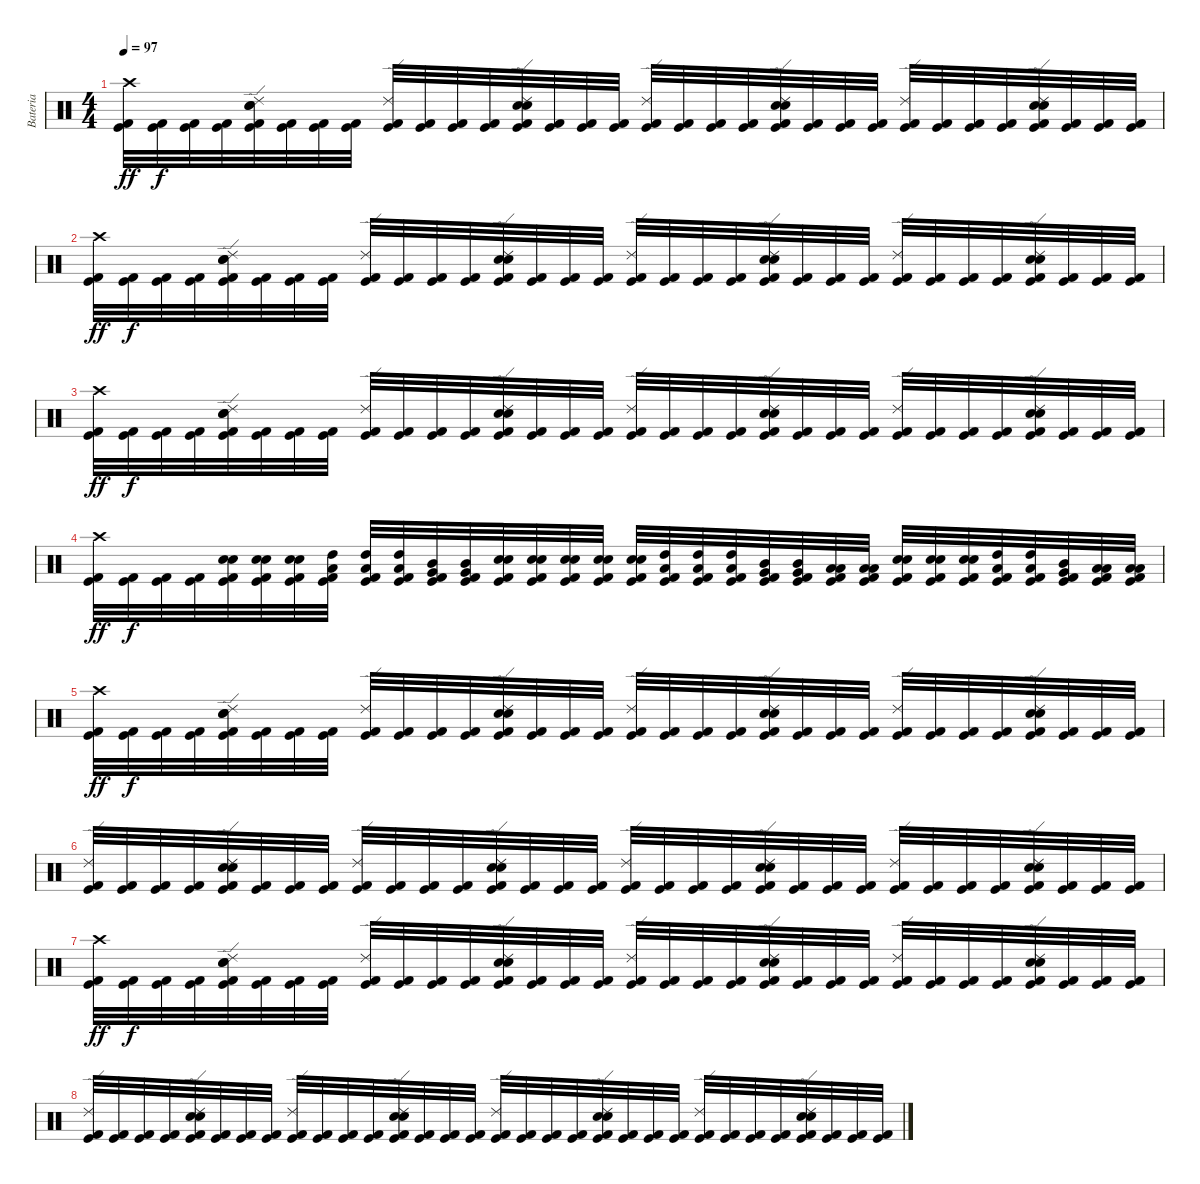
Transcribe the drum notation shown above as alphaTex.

\track ("Bateria" "Bateria") {instrument percussion}
\staff {score}
\articulation defaults
\ts (4 4)
\tempo 97
\clef neutral
\ks c
("Crash high (hit)" "Kick (hit) 2" "Kick (hit)").32{dy ff} ("Kick (hit) 2" "Kick (hit)").32{dy f} ("Kick (hit) 2" "Kick (hit)").32 ("Kick (hit) 2" "Kick (hit)").32 ("Ride (edge) 2" "Electric Snare (hit)" "Snare (hit) 2" "Kick (hit) 2" "Kick (hit)").32 ("Kick (hit) 2" "Kick (hit)").32 ("Kick (hit) 2" "Kick (hit)").32 ("Kick (hit) 2" "Kick (hit)").32 ("Ride (edge) 2" "Kick (hit) 2" "Kick (hit)").32 ("Kick (hit) 2" "Kick (hit)").32 ("Kick (hit) 2" "Kick (hit)").32 ("Kick (hit) 2" "Kick (hit)").32 ("Ride (edge) 2" "Electric Snare (hit)" "Snare (hit) 2" "Kick (hit) 2" "Kick (hit)").32 ("Kick (hit) 2" "Kick (hit)").32 ("Kick (hit) 2" "Kick (hit)").32 ("Kick (hit) 2" "Kick (hit)").32 ("Ride (edge) 2" "Kick (hit) 2" "Kick (hit)").32 ("Kick (hit) 2" "Kick (hit)").32 ("Kick (hit) 2" "Kick (hit)").32 ("Kick (hit) 2" "Kick (hit)").32 ("Ride (edge) 2" "Electric Snare (hit)" "Snare (hit) 2" "Kick (hit) 2" "Kick (hit)").32 ("Kick (hit) 2" "Kick (hit)").32 ("Kick (hit) 2" "Kick (hit)").32 ("Kick (hit) 2" "Kick (hit)").32 ("Ride (edge) 2" "Kick (hit) 2" "Kick (hit)").32 ("Kick (hit) 2" "Kick (hit)").32 ("Kick (hit) 2" "Kick (hit)").32 ("Kick (hit) 2" "Kick (hit)").32 ("Ride (edge) 2" "Electric Snare (hit)" "Snare (hit) 2" "Kick (hit) 2" "Kick (hit)").32 ("Kick (hit) 2" "Kick (hit)").32 ("Kick (hit) 2" "Kick (hit)").32 ("Kick (hit) 2" "Kick (hit)").32 |
("Crash high (hit)" "Kick (hit) 2" "Kick (hit)").32{dy ff} ("Kick (hit) 2" "Kick (hit)").32{dy f} ("Kick (hit) 2" "Kick (hit)").32 ("Kick (hit) 2" "Kick (hit)").32 ("Ride (edge) 2" "Electric Snare (hit)" "Snare (hit) 2" "Kick (hit) 2" "Kick (hit)").32 ("Kick (hit) 2" "Kick (hit)").32 ("Kick (hit) 2" "Kick (hit)").32 ("Kick (hit) 2" "Kick (hit)").32 ("Ride (edge) 2" "Kick (hit) 2" "Kick (hit)").32 ("Kick (hit) 2" "Kick (hit)").32 ("Kick (hit) 2" "Kick (hit)").32 ("Kick (hit) 2" "Kick (hit)").32 ("Ride (edge) 2" "Electric Snare (hit)" "Snare (hit) 2" "Kick (hit) 2" "Kick (hit)").32 ("Kick (hit) 2" "Kick (hit)").32 ("Kick (hit) 2" "Kick (hit)").32 ("Kick (hit) 2" "Kick (hit)").32 ("Ride (edge) 2" "Kick (hit) 2" "Kick (hit)").32 ("Kick (hit) 2" "Kick (hit)").32 ("Kick (hit) 2" "Kick (hit)").32 ("Kick (hit) 2" "Kick (hit)").32 ("Ride (edge) 2" "Electric Snare (hit)" "Snare (hit) 2" "Kick (hit) 2" "Kick (hit)").32 ("Kick (hit) 2" "Kick (hit)").32 ("Kick (hit) 2" "Kick (hit)").32 ("Kick (hit) 2" "Kick (hit)").32 ("Ride (edge) 2" "Kick (hit) 2" "Kick (hit)").32 ("Kick (hit) 2" "Kick (hit)").32 ("Kick (hit) 2" "Kick (hit)").32 ("Kick (hit) 2" "Kick (hit)").32 ("Ride (edge) 2" "Electric Snare (hit)" "Snare (hit) 2" "Kick (hit) 2" "Kick (hit)").32 ("Kick (hit) 2" "Kick (hit)").32 ("Kick (hit) 2" "Kick (hit)").32 ("Kick (hit) 2" "Kick (hit)").32 |
("Crash high (hit)" "Kick (hit) 2" "Kick (hit)").32{dy ff} ("Kick (hit) 2" "Kick (hit)").32{dy f} ("Kick (hit) 2" "Kick (hit)").32 ("Kick (hit) 2" "Kick (hit)").32 ("Ride (edge) 2" "Electric Snare (hit)" "Snare (hit) 2" "Kick (hit) 2" "Kick (hit)").32 ("Kick (hit) 2" "Kick (hit)").32 ("Kick (hit) 2" "Kick (hit)").32 ("Kick (hit) 2" "Kick (hit)").32 ("Ride (edge) 2" "Kick (hit) 2" "Kick (hit)").32 ("Kick (hit) 2" "Kick (hit)").32 ("Kick (hit) 2" "Kick (hit)").32 ("Kick (hit) 2" "Kick (hit)").32 ("Ride (edge) 2" "Electric Snare (hit)" "Snare (hit) 2" "Kick (hit) 2" "Kick (hit)").32 ("Kick (hit) 2" "Kick (hit)").32 ("Kick (hit) 2" "Kick (hit)").32 ("Kick (hit) 2" "Kick (hit)").32 ("Ride (edge) 2" "Kick (hit) 2" "Kick (hit)").32 ("Kick (hit) 2" "Kick (hit)").32 ("Kick (hit) 2" "Kick (hit)").32 ("Kick (hit) 2" "Kick (hit)").32 ("Ride (edge) 2" "Electric Snare (hit)" "Snare (hit) 2" "Kick (hit) 2" "Kick (hit)").32 ("Kick (hit) 2" "Kick (hit)").32 ("Kick (hit) 2" "Kick (hit)").32 ("Kick (hit) 2" "Kick (hit)").32 ("Ride (edge) 2" "Kick (hit) 2" "Kick (hit)").32 ("Kick (hit) 2" "Kick (hit)").32 ("Kick (hit) 2" "Kick (hit)").32 ("Kick (hit) 2" "Kick (hit)").32 ("Ride (edge) 2" "Electric Snare (hit)" "Snare (hit) 2" "Kick (hit) 2" "Kick (hit)").32 ("Kick (hit) 2" "Kick (hit)").32 ("Kick (hit) 2" "Kick (hit)").32 ("Kick (hit) 2" "Kick (hit)").32 |
("Crash high (hit)" "Kick (hit) 2" "Kick (hit)").32{dy ff} ("Kick (hit) 2" "Kick (hit)").32{dy f} ("Kick (hit) 2" "Kick (hit)").32 ("Kick (hit) 2" "Kick (hit)").32 ("Electric Snare (hit)" "Snare (hit) 2" "Kick (hit) 2" "Kick (hit)").32 ("Electric Snare (hit)" "Snare (hit) 2" "Kick (hit) 2" "Kick (hit)").32 ("Electric Snare (hit)" "Snare (hit) 2" "Kick (hit) 2" "Kick (hit)").32 ("High Tom (hit)" "Low Tom (hit)" "Kick (hit) 2" "Kick (hit)").32 ("High Tom (hit)" "Low Tom (hit)" "Kick (hit) 2" "Kick (hit)").32 ("High Tom (hit)" "Low Tom (hit)" "Kick (hit) 2" "Kick (hit)").32 ("Mid Tom (hit)" "Very Low Tom (hit)" "Kick (hit) 2" "Kick (hit)").32 ("Mid Tom (hit)" "Very Low Tom (hit)" "Kick (hit) 2" "Kick (hit)").32 ("Electric Snare (hit)" "Snare (hit) 2" "Kick (hit) 2" "Kick (hit)").32 ("Electric Snare (hit)" "Snare (hit) 2" "Kick (hit) 2" "Kick (hit)").32 ("Electric Snare (hit)" "Snare (hit) 2" "Kick (hit) 2" "Kick (hit)").32 ("Electric Snare (hit)" "Snare (hit) 2" "Kick (hit) 2" "Kick (hit)").32 ("Electric Snare (hit)" "Snare (hit) 2" "Kick (hit) 2" "Kick (hit)").32 ("High Tom (hit)" "Low Tom (hit)" "Kick (hit) 2" "Kick (hit)").32 ("High Tom (hit)" "Low Tom (hit)" "Kick (hit) 2" "Kick (hit)").32 ("High Tom (hit)" "Low Tom (hit)" "Kick (hit) 2" "Kick (hit)").32 ("Mid Tom (hit)" "Very Low Tom (hit)" "Kick (hit) 2" "Kick (hit)").32 ("Mid Tom (hit)" "Very Low Tom (hit)" "Kick (hit) 2" "Kick (hit)").32 ("Low Tom (hit)" "Low Floor Tom (hit)" "Kick (hit) 2" "Kick (hit)").32 ("Low Tom (hit)" "Low Floor Tom (hit)" "Kick (hit) 2" "Kick (hit)").32 ("Electric Snare (hit)" "Snare (hit) 2" "Kick (hit) 2" "Kick (hit)").32 ("Electric Snare (hit)" "Snare (hit) 2" "Kick (hit) 2" "Kick (hit)").32 ("Electric Snare (hit)" "Snare (hit) 2" "Kick (hit) 2" "Kick (hit)").32 ("High Tom (hit)" "Low Tom (hit)" "Kick (hit) 2" "Kick (hit)").32 ("High Tom (hit)" "Low Tom (hit)" "Kick (hit) 2" "Kick (hit)").32 ("Mid Tom (hit)" "Very Low Tom (hit)" "Kick (hit) 2" "Kick (hit)").32 ("Low Tom (hit)" "Low Floor Tom (hit)" "Kick (hit) 2" "Kick (hit)").32 ("Low Tom (hit)" "Low Floor Tom (hit)" "Kick (hit) 2" "Kick (hit)").32 |
("Crash high (hit)" "Kick (hit) 2" "Kick (hit)").32{dy ff} ("Kick (hit) 2" "Kick (hit)").32{dy f} ("Kick (hit) 2" "Kick (hit)").32 ("Kick (hit) 2" "Kick (hit)").32 ("Ride (edge) 2" "Electric Snare (hit)" "Snare (hit) 2" "Kick (hit) 2" "Kick (hit)").32 ("Kick (hit) 2" "Kick (hit)").32 ("Kick (hit) 2" "Kick (hit)").32 ("Kick (hit) 2" "Kick (hit)").32 ("Ride (edge) 2" "Kick (hit) 2" "Kick (hit)").32 ("Kick (hit) 2" "Kick (hit)").32 ("Kick (hit) 2" "Kick (hit)").32 ("Kick (hit) 2" "Kick (hit)").32 ("Ride (edge) 2" "Electric Snare (hit)" "Snare (hit) 2" "Kick (hit) 2" "Kick (hit)").32 ("Kick (hit) 2" "Kick (hit)").32 ("Kick (hit) 2" "Kick (hit)").32 ("Kick (hit) 2" "Kick (hit)").32 ("Ride (edge) 2" "Kick (hit) 2" "Kick (hit)").32 ("Kick (hit) 2" "Kick (hit)").32 ("Kick (hit) 2" "Kick (hit)").32 ("Kick (hit) 2" "Kick (hit)").32 ("Ride (edge) 2" "Electric Snare (hit)" "Snare (hit) 2" "Kick (hit) 2" "Kick (hit)").32 ("Kick (hit) 2" "Kick (hit)").32 ("Kick (hit) 2" "Kick (hit)").32 ("Kick (hit) 2" "Kick (hit)").32 ("Ride (edge) 2" "Kick (hit) 2" "Kick (hit)").32 ("Kick (hit) 2" "Kick (hit)").32 ("Kick (hit) 2" "Kick (hit)").32 ("Kick (hit) 2" "Kick (hit)").32 ("Ride (edge) 2" "Electric Snare (hit)" "Snare (hit) 2" "Kick (hit) 2" "Kick (hit)").32 ("Kick (hit) 2" "Kick (hit)").32 ("Kick (hit) 2" "Kick (hit)").32 ("Kick (hit) 2" "Kick (hit)").32 |
("Ride (edge) 2" "Kick (hit) 2" "Kick (hit)").32 ("Kick (hit) 2" "Kick (hit)").32 ("Kick (hit) 2" "Kick (hit)").32 ("Kick (hit) 2" "Kick (hit)").32 ("Ride (edge) 2" "Electric Snare (hit)" "Snare (hit) 2" "Kick (hit) 2" "Kick (hit)").32 ("Kick (hit) 2" "Kick (hit)").32 ("Kick (hit) 2" "Kick (hit)").32 ("Kick (hit) 2" "Kick (hit)").32 ("Ride (edge) 2" "Kick (hit) 2" "Kick (hit)").32 ("Kick (hit) 2" "Kick (hit)").32 ("Kick (hit) 2" "Kick (hit)").32 ("Kick (hit) 2" "Kick (hit)").32 ("Ride (edge) 2" "Electric Snare (hit)" "Snare (hit) 2" "Kick (hit) 2" "Kick (hit)").32 ("Kick (hit) 2" "Kick (hit)").32 ("Kick (hit) 2" "Kick (hit)").32 ("Kick (hit) 2" "Kick (hit)").32 ("Ride (edge) 2" "Kick (hit) 2" "Kick (hit)").32 ("Kick (hit) 2" "Kick (hit)").32 ("Kick (hit) 2" "Kick (hit)").32 ("Kick (hit) 2" "Kick (hit)").32 ("Ride (edge) 2" "Electric Snare (hit)" "Snare (hit) 2" "Kick (hit) 2" "Kick (hit)").32 ("Kick (hit) 2" "Kick (hit)").32 ("Kick (hit) 2" "Kick (hit)").32 ("Kick (hit) 2" "Kick (hit)").32 ("Ride (edge) 2" "Kick (hit) 2" "Kick (hit)").32 ("Kick (hit) 2" "Kick (hit)").32 ("Kick (hit) 2" "Kick (hit)").32 ("Kick (hit) 2" "Kick (hit)").32 ("Ride (edge) 2" "Electric Snare (hit)" "Snare (hit) 2" "Kick (hit) 2" "Kick (hit)").32 ("Kick (hit) 2" "Kick (hit)").32 ("Kick (hit) 2" "Kick (hit)").32 ("Kick (hit) 2" "Kick (hit)").32 |
("Crash high (hit)" "Kick (hit) 2" "Kick (hit)").32{dy ff} ("Kick (hit) 2" "Kick (hit)").32{dy f} ("Kick (hit) 2" "Kick (hit)").32 ("Kick (hit) 2" "Kick (hit)").32 ("Ride (edge) 2" "Electric Snare (hit)" "Snare (hit) 2" "Kick (hit) 2" "Kick (hit)").32 ("Kick (hit) 2" "Kick (hit)").32 ("Kick (hit) 2" "Kick (hit)").32 ("Kick (hit) 2" "Kick (hit)").32 ("Ride (edge) 2" "Kick (hit) 2" "Kick (hit)").32 ("Kick (hit) 2" "Kick (hit)").32 ("Kick (hit) 2" "Kick (hit)").32 ("Kick (hit) 2" "Kick (hit)").32 ("Ride (edge) 2" "Electric Snare (hit)" "Snare (hit) 2" "Kick (hit) 2" "Kick (hit)").32 ("Kick (hit) 2" "Kick (hit)").32 ("Kick (hit) 2" "Kick (hit)").32 ("Kick (hit) 2" "Kick (hit)").32 ("Ride (edge) 2" "Kick (hit) 2" "Kick (hit)").32 ("Kick (hit) 2" "Kick (hit)").32 ("Kick (hit) 2" "Kick (hit)").32 ("Kick (hit) 2" "Kick (hit)").32 ("Ride (edge) 2" "Electric Snare (hit)" "Snare (hit) 2" "Kick (hit) 2" "Kick (hit)").32 ("Kick (hit) 2" "Kick (hit)").32 ("Kick (hit) 2" "Kick (hit)").32 ("Kick (hit) 2" "Kick (hit)").32 ("Ride (edge) 2" "Kick (hit) 2" "Kick (hit)").32 ("Kick (hit) 2" "Kick (hit)").32 ("Kick (hit) 2" "Kick (hit)").32 ("Kick (hit) 2" "Kick (hit)").32 ("Ride (edge) 2" "Electric Snare (hit)" "Snare (hit) 2" "Kick (hit) 2" "Kick (hit)").32 ("Kick (hit) 2" "Kick (hit)").32 ("Kick (hit) 2" "Kick (hit)").32 ("Kick (hit) 2" "Kick (hit)").32 |
("Ride (edge) 2" "Kick (hit) 2" "Kick (hit)").32 ("Kick (hit) 2" "Kick (hit)").32 ("Kick (hit) 2" "Kick (hit)").32 ("Kick (hit) 2" "Kick (hit)").32 ("Ride (edge) 2" "Electric Snare (hit)" "Snare (hit) 2" "Kick (hit) 2" "Kick (hit)").32 ("Kick (hit) 2" "Kick (hit)").32 ("Kick (hit) 2" "Kick (hit)").32 ("Kick (hit) 2" "Kick (hit)").32 ("Ride (edge) 2" "Kick (hit) 2" "Kick (hit)").32 ("Kick (hit) 2" "Kick (hit)").32 ("Kick (hit) 2" "Kick (hit)").32 ("Kick (hit) 2" "Kick (hit)").32 ("Ride (edge) 2" "Electric Snare (hit)" "Snare (hit) 2" "Kick (hit) 2" "Kick (hit)").32 ("Kick (hit) 2" "Kick (hit)").32 ("Kick (hit) 2" "Kick (hit)").32 ("Kick (hit) 2" "Kick (hit)").32 ("Ride (edge) 2" "Kick (hit) 2" "Kick (hit)").32 ("Kick (hit) 2" "Kick (hit)").32 ("Kick (hit) 2" "Kick (hit)").32 ("Kick (hit) 2" "Kick (hit)").32 ("Ride (edge) 2" "Electric Snare (hit)" "Snare (hit) 2" "Kick (hit) 2" "Kick (hit)").32 ("Kick (hit) 2" "Kick (hit)").32 ("Kick (hit) 2" "Kick (hit)").32 ("Kick (hit) 2" "Kick (hit)").32 ("Ride (edge) 2" "Kick (hit) 2" "Kick (hit)").32 ("Kick (hit) 2" "Kick (hit)").32 ("Kick (hit) 2" "Kick (hit)").32 ("Kick (hit) 2" "Kick (hit)").32 ("Ride (edge) 2" "Electric Snare (hit)" "Snare (hit) 2" "Kick (hit) 2" "Kick (hit)").32 ("Kick (hit) 2" "Kick (hit)").32 ("Kick (hit) 2" "Kick (hit)").32 ("Kick (hit) 2" "Kick (hit)").32
